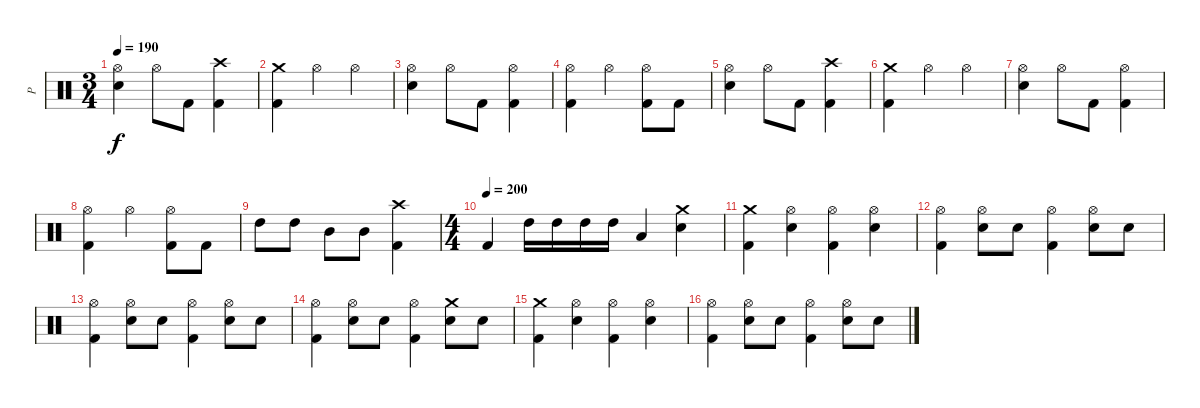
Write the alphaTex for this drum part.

\track ("P" "P") {instrument percussion}
\staff {score}
\articulation defaults
\ts (3 4)
\tempo 190
\clef neutral
\ks c
("Hi-Hat (open)" "Electric Snare (hit)").4{dy f} "Hi-Hat (open)".8 "Kick (hit) 2".8 ("Crash high (hit)" "Kick (hit) 2").4 |
("Crash medium (hit)" "Kick (hit) 2").4 "Hi-Hat (open)".4 "Hi-Hat (open)".4 |
("Hi-Hat (open)" "Electric Snare (hit)").4 "Hi-Hat (open)".8 "Kick (hit) 2".8 ("Hi-Hat (open)" "Kick (hit) 2").4 |
("Hi-Hat (open)" "Kick (hit) 2").4 "Hi-Hat (open)".4 ("Hi-Hat (open)" "Kick (hit) 2").8 "Kick (hit) 2".8 |
("Hi-Hat (open)" "Electric Snare (hit)").4 "Hi-Hat (open)".8 "Kick (hit) 2".8 ("Crash high (hit)" "Kick (hit) 2").4 |
("Crash medium (hit)" "Kick (hit) 2").4 "Hi-Hat (open)".4 "Hi-Hat (open)".4 |
("Hi-Hat (open)" "Electric Snare (hit)").4 "Hi-Hat (open)".8 "Kick (hit) 2".8 ("Hi-Hat (open)" "Kick (hit) 2").4 |
("Hi-Hat (open)" "Kick (hit) 2").4 "Hi-Hat (open)".4 ("Hi-Hat (open)" "Kick (hit) 2").8 "Kick (hit) 2".8 |
"High Tom (hit)".8 "High Tom (hit)".8 "Mid Tom (hit)".8 "Mid Tom (hit)".8 ("Crash high (hit)" "Kick (hit) 2").4 |
\ts (4 4)
\tempo (200)
"Kick (hit) 2".4 "High Tom (hit)".16 "High Tom (hit)".16 "High Tom (hit)".16 "High Tom (hit)".16 "Low Tom (hit)".4 ("Crash medium (hit)" "Electric Snare (hit)").4 |
("Crash medium (hit)" "Kick (hit) 2").4 ("Hi-Hat (open)" "Electric Snare (hit)").4 ("Hi-Hat (open)" "Kick (hit) 2").4 ("Hi-Hat (open)" "Electric Snare (hit)").4 |
("Hi-Hat (open)" "Kick (hit) 2").4 ("Hi-Hat (open)" "Electric Snare (hit)").8 "Electric Snare (hit)".8 ("Hi-Hat (open)" "Kick (hit) 2").4 ("Hi-Hat (open)" "Electric Snare (hit)").8 "Electric Snare (hit)".8 |
("Hi-Hat (open)" "Kick (hit) 2").4 ("Hi-Hat (open)" "Electric Snare (hit)").8 "Electric Snare (hit)".8 ("Hi-Hat (open)" "Kick (hit) 2").4 ("Hi-Hat (open)" "Electric Snare (hit)").8 "Electric Snare (hit)".8 |
("Hi-Hat (open)" "Kick (hit) 2").4 ("Hi-Hat (open)" "Electric Snare (hit)").8 "Electric Snare (hit)".8 ("Hi-Hat (open)" "Kick (hit) 2").4 ("Crash medium (hit)" "Electric Snare (hit)").8 "Electric Snare (hit)".8 |
("Crash medium (hit)" "Kick (hit) 2").4 ("Hi-Hat (open)" "Electric Snare (hit)").4 ("Hi-Hat (open)" "Kick (hit) 2").4 ("Hi-Hat (open)" "Electric Snare (hit)").4 |
("Hi-Hat (open)" "Kick (hit) 2").4 ("Hi-Hat (open)" "Electric Snare (hit)").8 "Electric Snare (hit)".8 ("Hi-Hat (open)" "Kick (hit) 2").4 ("Hi-Hat (open)" "Electric Snare (hit)").8 "Electric Snare (hit)".8
